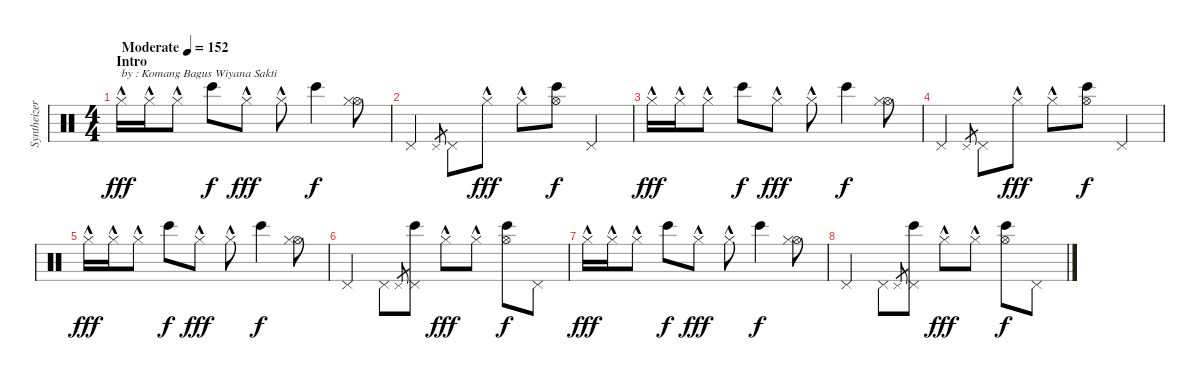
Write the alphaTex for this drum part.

\track ("Syntheizer" "Syntheizer") {instrument percussion}
\staff {score}
\articulation defaults
\ts (4 4)
\section ("" "Intro")
\tempo (152 "Moderate")
\clef neutral
\ks c "Hi-Hat (closed)"{hac}.16{txt "by : Komang Bagus Wiyana Sakti" dy fff} "Hi-Hat (closed)"{hac}.16 "Hi-Hat (closed)"{hac}.8 "Bongo High (hit)".8{dy f} "Hi-Hat (closed)"{hac}.8{dy fff} "Hi-Hat (closed)"{hac}.8 "Bongo High (hit)".4{dy f}
("Hi-Hat (open)" "Hi-Hat (closed)").8 |
"Pedal Hi-Hat (hit)".4 "Pedal Hi-Hat (hit)".8{gr} "Pedal Hi-Hat (hit)".8 "Hi-Hat (closed)"{hac}.8{dy fff} "Hi-Hat (closed)"{hac}.8 ("Hi-Hat (open)" "Bongo High (hit)").8{dy f} "Pedal Hi-Hat (hit)".4 |
"Hi-Hat (closed)"{hac}.16{dy fff} "Hi-Hat (closed)"{hac}.16 "Hi-Hat (closed)"{hac}.8 "Bongo High (hit)".8{dy f} "Hi-Hat (closed)"{hac}.8{dy fff} "Hi-Hat (closed)"{hac}.8 "Bongo High (hit)".4{dy f} ("Hi-Hat (open)" "Hi-Hat (closed)").8 |
"Pedal Hi-Hat (hit)".4 "Pedal Hi-Hat (hit)".8{gr} "Pedal Hi-Hat (hit)".8 "Hi-Hat (closed)"{hac}.8{dy fff} "Hi-Hat (closed)"{hac}.8 ("Hi-Hat (open)" "Bongo High (hit)").8{dy f} "Pedal Hi-Hat (hit)".4 |
"Hi-Hat (closed)"{hac}.16{dy fff} "Hi-Hat (closed)"{hac}.16 "Hi-Hat (closed)"{hac}.8 "Bongo High (hit)".8{dy f} "Hi-Hat (closed)"{hac}.8{dy fff} "Hi-Hat (closed)"{hac}.8 "Bongo High (hit)".4{dy f} ("Hi-Hat (open)" "Hi-Hat (closed)").8 |
"Pedal Hi-Hat (hit)".4 "Pedal Hi-Hat (hit)".8 "Pedal Hi-Hat (hit)".8{gr} ("Pedal Hi-Hat (hit)" "Bongo High (hit)").8 "Hi-Hat (closed)"{hac}.8{dy fff} "Hi-Hat (closed)"{hac}.8 ("Hi-Hat (open)" "Bongo High (hit)").8{dy f} "Pedal Hi-Hat (hit)".8 |
"Hi-Hat (closed)"{hac}.16{dy fff} "Hi-Hat (closed)"{hac}.16 "Hi-Hat (closed)"{hac}.8 "Bongo High (hit)".8{dy f} "Hi-Hat (closed)"{hac}.8{dy fff} "Hi-Hat (closed)"{hac}.8 "Bongo High (hit)".4{dy f} ("Hi-Hat (open)" "Hi-Hat (closed)").8 |
"Pedal Hi-Hat (hit)".4 "Pedal Hi-Hat (hit)".8 "Pedal Hi-Hat (hit)".8{gr} ("Pedal Hi-Hat (hit)" "Bongo High (hit)").8 "Hi-Hat (closed)"{hac}.8{dy fff} "Hi-Hat (closed)"{hac}.8 ("Hi-Hat (open)" "Bongo High (hit)").8{dy f} "Pedal Hi-Hat (hit)".8
